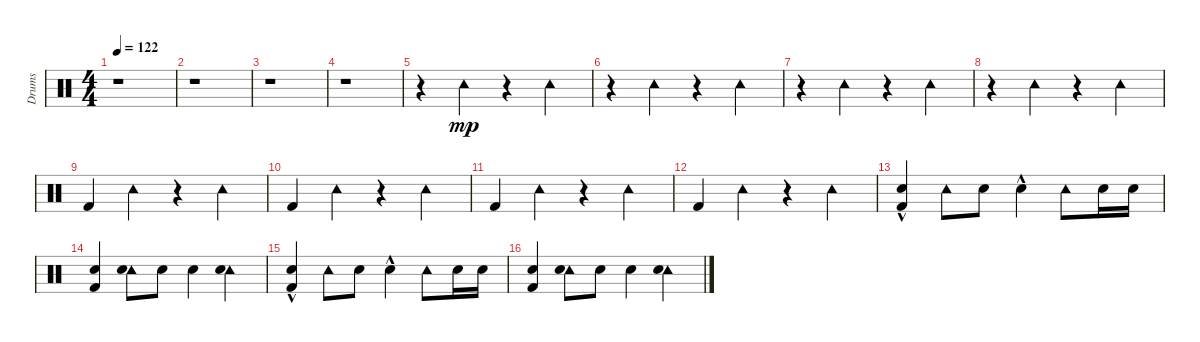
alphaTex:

\track ("Drums" "Drums") {instrument percussion}
\staff {score}
\articulation defaults
\ts (4 4)
\tempo 122
\clef neutral
\ks c
r.1{dy mp} |
r.1 |
r.1 |
r.1 |
r.4 "Tambourine (hit)".4 r.4 "Tambourine (hit)".4 |
r.4 "Tambourine (hit)".4 r.4 "Tambourine (hit)".4 |
r.4 "Tambourine (hit)".4 r.4 "Tambourine (hit)".4 |
r.4 "Tambourine (hit)".4 r.4 "Tambourine (hit)".4 |
"Kick (hit) 2".4 "Tambourine (hit)".4 r.4 "Tambourine (hit)".4 |
"Kick (hit) 2".4 "Tambourine (hit)".4 r.4 "Tambourine (hit)".4 |
"Kick (hit) 2".4 "Tambourine (hit)".4 r.4 "Tambourine (hit)".4 |
"Kick (hit) 2".4 "Tambourine (hit)".4 r.4 "Tambourine (hit)".4 |
("Kick (hit) 2"{hac} "Snare (hit) 2"{hac}).4 "Tambourine (hit)".8 "Snare (hit) 2".8 "Snare (hit) 2"{hac}.4 "Tambourine (hit)".8 "Snare (hit) 2".16 "Snare (hit) 2".16 |
("Kick (hit) 2" "Snare (hit) 2").4 ("Tambourine (hit)" "Snare (hit) 2").8 "Snare (hit) 2".8 "Snare (hit) 2".4 ("Tambourine (hit)" "Snare (hit) 2").4 |
("Kick (hit) 2"{hac} "Snare (hit) 2"{hac}).4 "Tambourine (hit)".8 "Snare (hit) 2".8 "Snare (hit) 2"{hac}.4 "Tambourine (hit)".8 "Snare (hit) 2".16 "Snare (hit) 2".16 |
("Kick (hit) 2" "Snare (hit) 2").4 ("Tambourine (hit)" "Snare (hit) 2").8 "Snare (hit) 2".8 "Snare (hit) 2".4 ("Tambourine (hit)" "Snare (hit) 2").4
